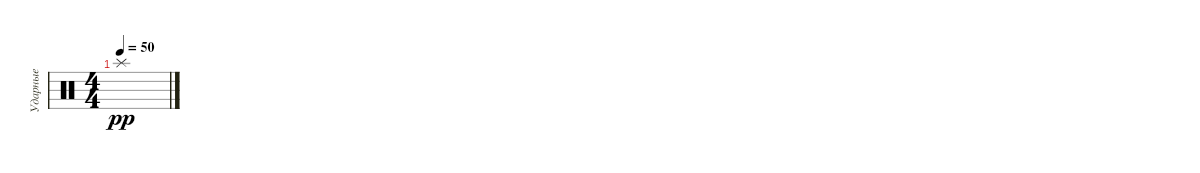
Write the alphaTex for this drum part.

\track ("Ударные" "Ударные") {instrument percussion}
\staff {score}
\articulation defaults
\ts (4 4)
\tempo 50
\clef neutral
\ks c "Splash (hit)".1{dy pp}
